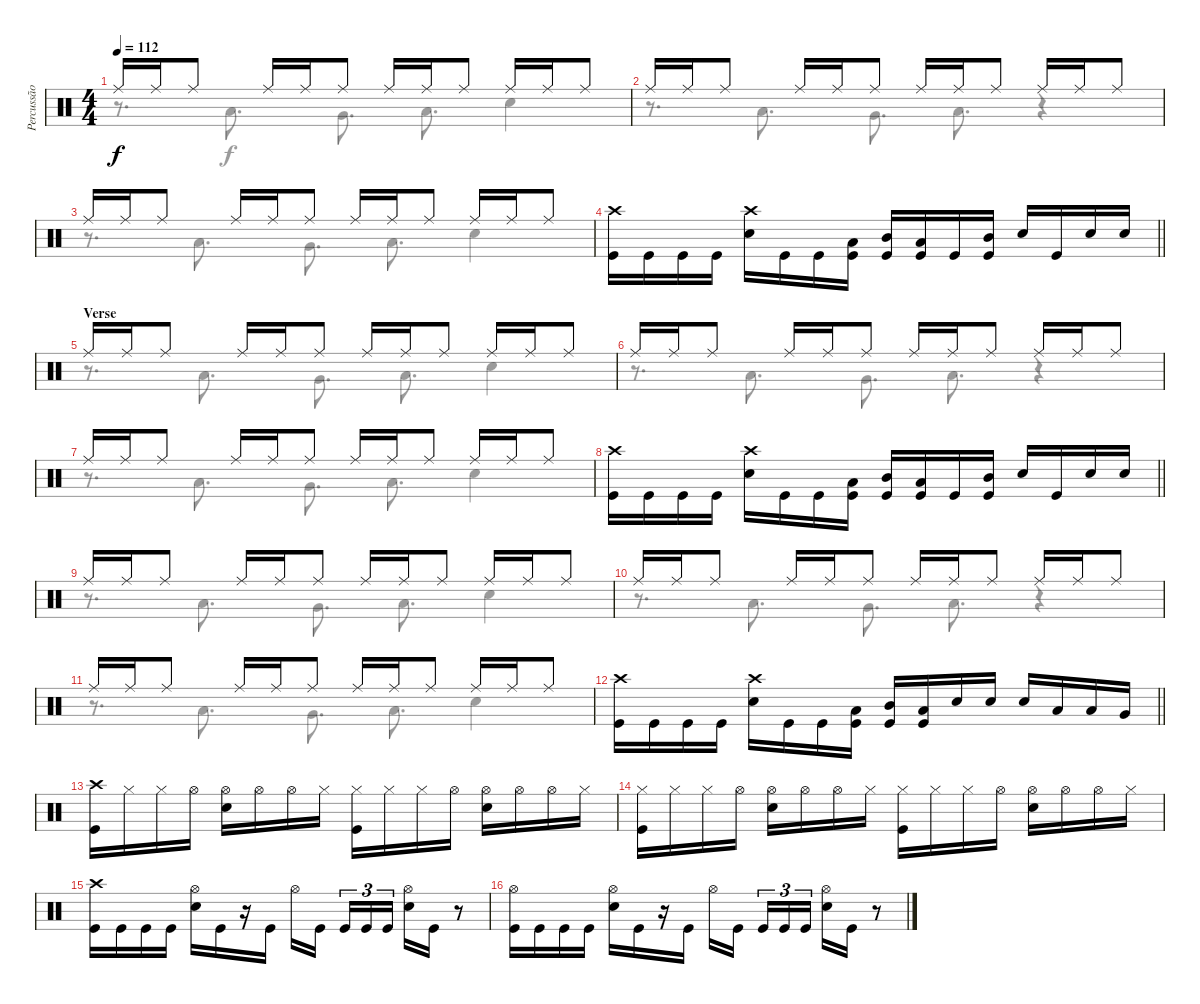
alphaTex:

\track ("Percussão" "Percussão") {instrument percussion}
\staff {score}
\articulation defaults
\voice
\ts (4 4)
\tempo 112
\clef neutral
\ks c "Ride (middle)".16{dy f} "Ride (middle)".16 "Ride (middle)".8 "Ride (middle)".16 "Ride (middle)".16 "Ride (middle)".8 "Ride (middle)".16 "Ride (middle)".16 "Ride (middle)".8 "Ride (middle)".16 "Ride (middle)".16 "Ride (middle)".8
|
"Ride (middle)".16 "Ride (middle)".16 "Ride (middle)".8 "Ride (middle)".16 "Ride (middle)".16 "Ride (middle)".8 "Ride (middle)".16 "Ride (middle)".16 "Ride (middle)".8 "Ride (middle)".16 "Ride (middle)".16 "Ride (middle)".8 |
"Ride (middle)".16 "Ride (middle)".16 "Ride (middle)".8 "Ride (middle)".16 "Ride (middle)".16 "Ride (middle)".8 "Ride (middle)".16 "Ride (middle)".16 "Ride (middle)".8 "Ride (middle)".16 "Ride (middle)".16 "Ride (middle)".8 |
\barLineRight lightlight
("Crash high (hit)" "Kick (hit)").16 "Kick (hit)".16 "Kick (hit)".16 "Kick (hit)".16 ("Crash high (hit)" "Electric Snare (hit)").16 "Kick (hit)".16 "Kick (hit)".16 ("Low Tom (hit)" "Kick (hit)").16 ("Mid Tom (hit)" "Kick (hit)").16 ("Low Tom (hit)" "Kick (hit)").16 "Kick (hit)".16 ("Mid Tom (hit)" "Kick (hit)").16 "Electric Snare (hit)".16 "Kick (hit)".16 "Electric Snare (hit)".16 "Electric Snare (hit)".16 |
\section ("" "Verse")
"Ride (middle)".16 "Ride (middle)".16 "Ride (middle)".8 "Ride (middle)".16 "Ride (middle)".16 "Ride (middle)".8 "Ride (middle)".16 "Ride (middle)".16 "Ride (middle)".8 "Ride (middle)".16 "Ride (middle)".16 "Ride (middle)".8 |
"Ride (middle)".16 "Ride (middle)".16 "Ride (middle)".8 "Ride (middle)".16 "Ride (middle)".16 "Ride (middle)".8 "Ride (middle)".16 "Ride (middle)".16 "Ride (middle)".8 "Ride (middle)".16 "Ride (middle)".16 "Ride (middle)".8 |
"Ride (middle)".16 "Ride (middle)".16 "Ride (middle)".8 "Ride (middle)".16 "Ride (middle)".16 "Ride (middle)".8 "Ride (middle)".16 "Ride (middle)".16 "Ride (middle)".8 "Ride (middle)".16 "Ride (middle)".16 "Ride (middle)".8 |
\barLineRight lightlight
("Crash high (hit)" "Kick (hit)").16 "Kick (hit)".16 "Kick (hit)".16 "Kick (hit)".16 ("Crash high (hit)" "Electric Snare (hit)").16 "Kick (hit)".16 "Kick (hit)".16 ("Low Tom (hit)" "Kick (hit)").16 ("Mid Tom (hit)" "Kick (hit)").16 ("Low Tom (hit)" "Kick (hit)").16 "Kick (hit)".16 ("Mid Tom (hit)" "Kick (hit)").16 "Electric Snare (hit)".16 "Kick (hit)".16 "Electric Snare (hit)".16 "Electric Snare (hit)".16 |
"Ride (middle)".16 "Ride (middle)".16 "Ride (middle)".8 "Ride (middle)".16 "Ride (middle)".16 "Ride (middle)".8 "Ride (middle)".16 "Ride (middle)".16 "Ride (middle)".8 "Ride (middle)".16 "Ride (middle)".16 "Ride (middle)".8 |
"Ride (middle)".16 "Ride (middle)".16 "Ride (middle)".8 "Ride (middle)".16 "Ride (middle)".16 "Ride (middle)".8 "Ride (middle)".16 "Ride (middle)".16 "Ride (middle)".8 "Ride (middle)".16 "Ride (middle)".16 "Ride (middle)".8 |
"Ride (middle)".16 "Ride (middle)".16 "Ride (middle)".8 "Ride (middle)".16 "Ride (middle)".16 "Ride (middle)".8 "Ride (middle)".16 "Ride (middle)".16 "Ride (middle)".8 "Ride (middle)".16 "Ride (middle)".16 "Ride (middle)".8 |
\barLineRight lightlight
("Crash high (hit)" "Kick (hit)").16 "Kick (hit)".16 "Kick (hit)".16 "Kick (hit)".16 ("Crash high (hit)" "Electric Snare (hit)").16 "Kick (hit)".16 "Kick (hit)".16 ("Low Tom (hit)" "Kick (hit)").16 ("Mid Tom (hit)" "Kick (hit)").16 ("Low Tom (hit)" "Kick (hit)").16 "Electric Snare (hit)".16 "Electric Snare (hit)".16 "Electric Snare (hit)".16 "Low Tom (hit)".16 "Low Tom (hit)".16 "Very Low Tom (hit)".16 |
\section ("" "")
("Crash high (hit)" "Kick (hit)").16 "Hi-Hat (closed)".16 "Hi-Hat (closed)".16 "Hi-Hat (open)".16 ("Hi-Hat (open)" "Electric Snare (hit)").16 "Hi-Hat (open)".16 "Hi-Hat (open)".16 "Hi-Hat (closed)".16 ("Hi-Hat (closed)" "Kick (hit)").16 "Hi-Hat (closed)".16 "Hi-Hat (closed)".16 "Hi-Hat (open)".16 ("Hi-Hat (open)" "Electric Snare (hit)").16 "Hi-Hat (open)".16 "Hi-Hat (open)".16 "Hi-Hat (closed)".16 |
("Hi-Hat (closed)" "Kick (hit)").16 "Hi-Hat (closed)".16 "Hi-Hat (closed)".16 "Hi-Hat (open)".16 ("Hi-Hat (open)" "Electric Snare (hit)").16 "Hi-Hat (open)".16 "Hi-Hat (open)".16 "Hi-Hat (closed)".16 ("Hi-Hat (closed)" "Kick (hit)").16 "Hi-Hat (closed)".16 "Hi-Hat (closed)".16 "Hi-Hat (open)".16 ("Hi-Hat (open)" "Electric Snare (hit)").16 "Hi-Hat (open)".16 "Hi-Hat (open)".16 "Hi-Hat (closed)".16 |
("Crash high (hit)" "Kick (hit)").16 "Kick (hit)".16 "Kick (hit)".16 "Kick (hit)".16 ("Hi-Hat (open)" "Electric Snare (hit)").16 "Kick (hit)".16 r.16 "Kick (hit)".16 "Hi-Hat (open)".16 "Kick (hit)".16{beam splitsecondary} "Kick (hit)".16{tu (3 2)} "Kick (hit)".16{tu (3 2)} "Kick (hit)".16{tu (3 2)} ("Hi-Hat (open)" "Electric Snare (hit)").16 "Kick (hit)".16 r.8 |
("Hi-Hat (open)" "Kick (hit)").16 "Kick (hit)".16 "Kick (hit)".16 "Kick (hit)".16 ("Hi-Hat (open)" "Electric Snare (hit)").16 "Kick (hit)".16 r.16 "Kick (hit)".16 "Hi-Hat (open)".16 "Kick (hit)".16{beam splitsecondary} "Kick (hit)".16{tu (3 2)} "Kick (hit)".16{tu (3 2)} "Kick (hit)".16{tu (3 2)} ("Hi-Hat (open)" "Electric Snare (hit)").16 "Kick (hit)".16 r.8
\voice
\clef neutral
\ottava regular
\simile none
\ks c
r.8{d dy f} "Low Tom (hit)".8{d} "Very Low Tom (hit)".8{d} "Low Floor Tom (hit)".8{d} "Electric Snare (hit)".4 |
r.8{d} "Low Tom (hit)".8{d} "Very Low Tom (hit)".8{d} "Low Floor Tom (hit)".8{d} r.4 |
r.8{d} "Low Tom (hit)".8{d} "Very Low Tom (hit)".8{d} "Low Floor Tom (hit)".8{d} "Electric Snare (hit)".4 |
\barLineRight lightlight
|
r.8{d} "Low Tom (hit)".8{d} "Very Low Tom (hit)".8{d} "Low Floor Tom (hit)".8{d} "Electric Snare (hit)".4 |
r.8{d} "Low Tom (hit)".8{d} "Very Low Tom (hit)".8{d} "Low Floor Tom (hit)".8{d} r.4 |
r.8{d} "Low Tom (hit)".8{d} "Very Low Tom (hit)".8{d} "Low Floor Tom (hit)".8{d} "Electric Snare (hit)".4 |
\barLineRight lightlight
|
r.8{d} "Low Tom (hit)".8{d} "Very Low Tom (hit)".8{d} "Low Floor Tom (hit)".8{d} "Electric Snare (hit)".4 |
r.8{d} "Low Tom (hit)".8{d} "Very Low Tom (hit)".8{d} "Low Floor Tom (hit)".8{d} r.4 |
r.8{d} "Low Tom (hit)".8{d} "Very Low Tom (hit)".8{d} "Low Floor Tom (hit)".8{d} "Electric Snare (hit)".4 |
\barLineRight lightlight
|
|
|
|
